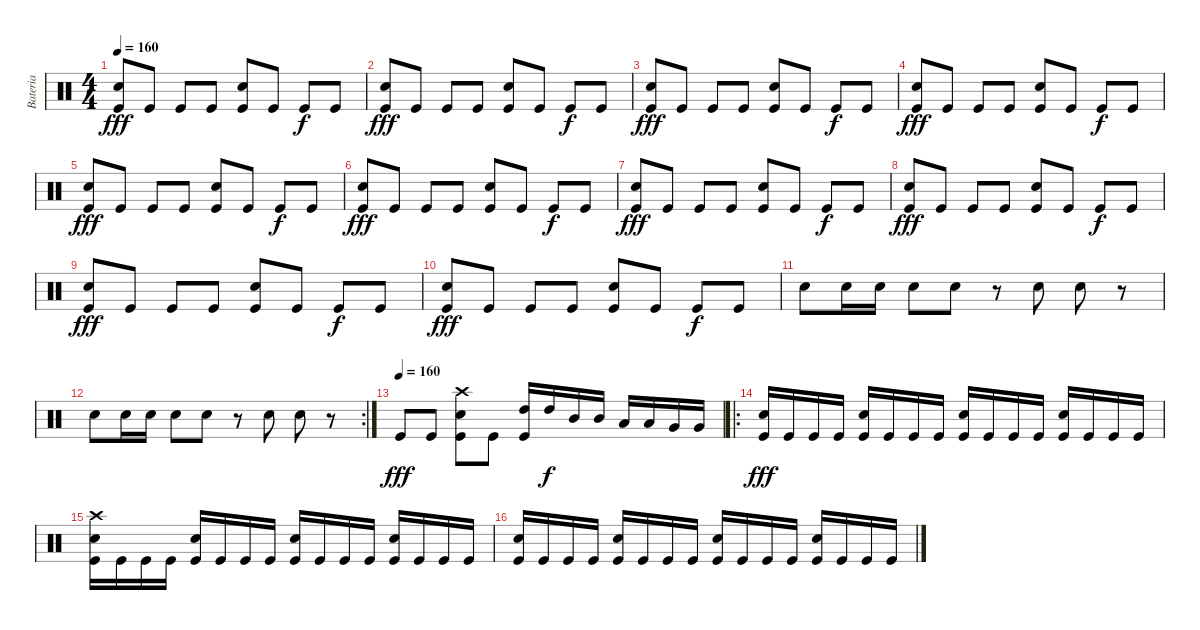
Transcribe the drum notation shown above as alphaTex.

\track ("Bateria" "Bateria") {instrument percussion}
\staff {score}
\articulation defaults
\ts (4 4)
\tempo 160
\clef neutral
\ks c
("Electric Snare (hit)" "Kick (hit)").8{dy fff} "Kick (hit)".8 "Kick (hit)".8 "Kick (hit)".8 ("Electric Snare (hit)" "Kick (hit)").8 "Kick (hit)".8 "Kick (hit)".8{dy f} "Kick (hit)".8 |
("Electric Snare (hit)" "Kick (hit)").8{dy fff} "Kick (hit)".8 "Kick (hit)".8 "Kick (hit)".8 ("Electric Snare (hit)" "Kick (hit)").8 "Kick (hit)".8 "Kick (hit)".8{dy f} "Kick (hit)".8 |
("Electric Snare (hit)" "Kick (hit)").8{dy fff} "Kick (hit)".8 "Kick (hit)".8 "Kick (hit)".8 ("Electric Snare (hit)" "Kick (hit)").8 "Kick (hit)".8 "Kick (hit)".8{dy f} "Kick (hit)".8 |
("Electric Snare (hit)" "Kick (hit)").8{dy fff} "Kick (hit)".8 "Kick (hit)".8 "Kick (hit)".8 ("Electric Snare (hit)" "Kick (hit)").8 "Kick (hit)".8 "Kick (hit)".8{dy f} "Kick (hit)".8 |
("Electric Snare (hit)" "Kick (hit)").8{dy fff} "Kick (hit)".8 "Kick (hit)".8 "Kick (hit)".8 ("Electric Snare (hit)" "Kick (hit)").8 "Kick (hit)".8 "Kick (hit)".8{dy f} "Kick (hit)".8 |
("Electric Snare (hit)" "Kick (hit)").8{dy fff} "Kick (hit)".8 "Kick (hit)".8 "Kick (hit)".8 ("Electric Snare (hit)" "Kick (hit)").8 "Kick (hit)".8 "Kick (hit)".8{dy f} "Kick (hit)".8 |
("Electric Snare (hit)" "Kick (hit)").8{dy fff} "Kick (hit)".8 "Kick (hit)".8 "Kick (hit)".8 ("Electric Snare (hit)" "Kick (hit)").8 "Kick (hit)".8 "Kick (hit)".8{dy f} "Kick (hit)".8 |
("Electric Snare (hit)" "Kick (hit)").8{dy fff} "Kick (hit)".8 "Kick (hit)".8 "Kick (hit)".8 ("Electric Snare (hit)" "Kick (hit)").8 "Kick (hit)".8 "Kick (hit)".8{dy f} "Kick (hit)".8 |
("Electric Snare (hit)" "Kick (hit)").8{dy fff} "Kick (hit)".8 "Kick (hit)".8 "Kick (hit)".8 ("Electric Snare (hit)" "Kick (hit)").8 "Kick (hit)".8 "Kick (hit)".8{dy f} "Kick (hit)".8 |
("Electric Snare (hit)" "Kick (hit)").8{dy fff} "Kick (hit)".8 "Kick (hit)".8 "Kick (hit)".8 ("Electric Snare (hit)" "Kick (hit)").8 "Kick (hit)".8 "Kick (hit)".8{dy f} "Kick (hit)".8 |
"Electric Snare (hit)".8 "Electric Snare (hit)".16 "Electric Snare (hit)".16 "Electric Snare (hit)".8 "Electric Snare (hit)".8 r.8 "Electric Snare (hit)".8 "Electric Snare (hit)".8 r.8 |
\rc 2 "Electric Snare (hit)".8 "Electric Snare (hit)".16 "Electric Snare (hit)".16 "Electric Snare (hit)".8 "Electric Snare (hit)".8
r.8 "Electric Snare (hit)".8 "Electric Snare (hit)".8 r.8 |
\tempo (160)
"Kick (hit)".8{dy fff} "Kick (hit)".8 ("Crash high (hit)" "Electric Snare (hit)" "Kick (hit)").8 "Kick (hit)".8 ("High Tom (hit)" "Kick (hit)").16 "High Tom (hit)".16{dy f} "Mid Tom (hit)".16 "Mid Tom (hit)".16 "Low Tom (hit)".16 "Low Tom (hit)".16 "Very Low Tom (hit)".16 "Very Low Tom (hit)".16 |
\ro
("Electric Snare (hit)" "Kick (hit)").16{dy fff} "Kick (hit)".16 "Kick (hit)".16 "Kick (hit)".16 ("Electric Snare (hit)" "Kick (hit)").16 "Kick (hit)".16 "Kick (hit)".16 "Kick (hit)".16 ("Electric Snare (hit)" "Kick (hit)").16 "Kick (hit)".16 "Kick (hit)".16 "Kick (hit)".16 ("Electric Snare (hit)" "Kick (hit)").16 "Kick (hit)".16 "Kick (hit)".16 "Kick (hit)".16 |
("Crash high (hit)" "Electric Snare (hit)" "Kick (hit)").16 "Kick (hit)".16 "Kick (hit)".16 "Kick (hit)".16 ("Electric Snare (hit)" "Kick (hit)").16 "Kick (hit)".16 "Kick (hit)".16 "Kick (hit)".16 ("Electric Snare (hit)" "Kick (hit)").16 "Kick (hit)".16 "Kick (hit)".16 "Kick (hit)".16 ("Electric Snare (hit)" "Kick (hit)").16 "Kick (hit)".16 "Kick (hit)".16 "Kick (hit)".16 |
("Electric Snare (hit)" "Kick (hit)").16 "Kick (hit)".16 "Kick (hit)".16 "Kick (hit)".16 ("Electric Snare (hit)" "Kick (hit)").16 "Kick (hit)".16 "Kick (hit)".16 "Kick (hit)".16 ("Electric Snare (hit)" "Kick (hit)").16 "Kick (hit)".16 "Kick (hit)".16 "Kick (hit)".16 ("Electric Snare (hit)" "Kick (hit)").16 "Kick (hit)".16 "Kick (hit)".16 "Kick (hit)".16
